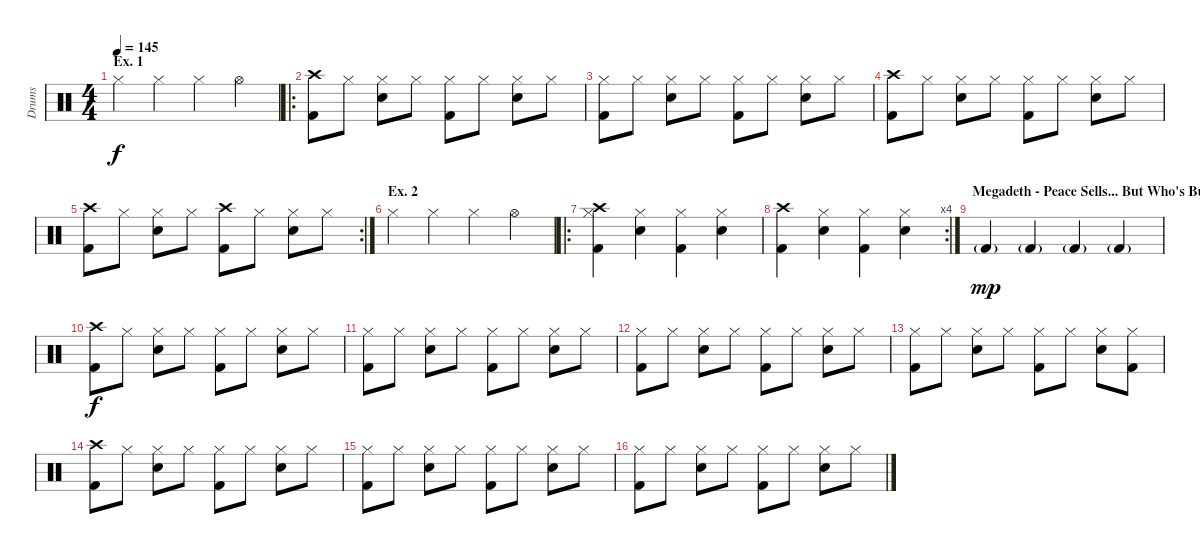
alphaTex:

\track ("Drums" "Drums") {instrument percussion}
\staff {score}
\articulation defaults
\ts (4 4)
\section ("" "Ex. 1")
\tempo 145
\clef neutral
\ks c "Hi-Hat (closed)".4{dy f} "Hi-Hat (closed)".4 "Hi-Hat (closed)".4 "Hi-Hat (open)".4
|
\ro
("Crash high (hit)" "Kick (hit) 2").8 "Hi-Hat (closed)".8 ("Hi-Hat (closed)" "Snare (hit) 2").8 "Hi-Hat (closed)".8 ("Hi-Hat (closed)" "Kick (hit) 2").8 "Hi-Hat (closed)".8 ("Hi-Hat (closed)" "Snare (hit) 2").8 "Hi-Hat (closed)".8 |
("Hi-Hat (closed)" "Kick (hit) 2").8 "Hi-Hat (closed)".8 ("Hi-Hat (closed)" "Snare (hit) 2").8 "Hi-Hat (closed)".8 ("Hi-Hat (closed)" "Kick (hit) 2").8 "Hi-Hat (closed)".8 ("Hi-Hat (closed)" "Snare (hit) 2").8 "Hi-Hat (closed)".8 |
("Crash high (hit)" "Kick (hit) 2").8 "Hi-Hat (closed)".8 ("Hi-Hat (closed)" "Snare (hit) 2").8 "Hi-Hat (closed)".8 ("Hi-Hat (closed)" "Kick (hit) 2").8 "Hi-Hat (closed)".8 ("Hi-Hat (closed)" "Snare (hit) 2").8 "Hi-Hat (closed)".8 |
\rc 2
("Crash high (hit)" "Kick (hit) 2").8 "Hi-Hat (closed)".8 ("Hi-Hat (closed)" "Snare (hit) 2").8 "Hi-Hat (closed)".8 ("Crash high (hit)" "Kick (hit) 2").8 "Hi-Hat (closed)".8 ("Hi-Hat (closed)" "Snare (hit) 2").8 "Hi-Hat (closed)".8 |
\section ("" "Ex. 2")
"Hi-Hat (closed)".4 "Hi-Hat (closed)".4 "Hi-Hat (closed)".4 "Hi-Hat (open)".4 |
\ro
("Crash high (hit)" "Hi-Hat (closed)" "Kick (hit) 2").4 ("Hi-Hat (closed)" "Snare (hit) 2").4 ("Hi-Hat (closed)" "Kick (hit) 2").4 ("Hi-Hat (closed)" "Snare (hit) 2").4 |
\rc 4
("Crash high (hit)" "Kick (hit) 2").4 ("Hi-Hat (closed)" "Snare (hit) 2").4 ("Hi-Hat (closed)" "Kick (hit) 2").4 ("Hi-Hat (closed)" "Snare (hit) 2").4 |
\section ("" "Megadeth - Peace Sells... But Who's Buying?")
"Kick (hit) 2"{g}.4{dy mp} "Kick (hit) 2"{g}.4 "Kick (hit) 2"{g}.4 "Kick (hit) 2"{g}.4 |
("Crash high (hit)" "Kick (hit) 2").8{dy f} "Hi-Hat (closed)".8 ("Hi-Hat (closed)" "Snare (hit) 2").8 "Hi-Hat (closed)".8 ("Hi-Hat (closed)" "Kick (hit) 2").8 "Hi-Hat (closed)".8 ("Hi-Hat (closed)" "Snare (hit) 2").8 "Hi-Hat (closed)".8 |
("Hi-Hat (closed)" "Kick (hit) 2").8 "Hi-Hat (closed)".8 ("Hi-Hat (closed)" "Snare (hit) 2").8 "Hi-Hat (closed)".8 ("Hi-Hat (closed)" "Kick (hit) 2").8 "Hi-Hat (closed)".8 ("Hi-Hat (closed)" "Snare (hit) 2").8 "Hi-Hat (closed)".8 |
("Hi-Hat (closed)" "Kick (hit) 2").8 "Hi-Hat (closed)".8 ("Hi-Hat (closed)" "Snare (hit) 2").8 "Hi-Hat (closed)".8 ("Hi-Hat (closed)" "Kick (hit) 2").8 "Hi-Hat (closed)".8 ("Hi-Hat (closed)" "Snare (hit) 2").8 "Hi-Hat (closed)".8 |
("Hi-Hat (closed)" "Kick (hit) 2").8 "Hi-Hat (closed)".8 ("Hi-Hat (closed)" "Snare (hit) 2").8 "Hi-Hat (closed)".8 ("Hi-Hat (closed)" "Kick (hit) 2").8 "Hi-Hat (closed)".8 ("Hi-Hat (closed)" "Snare (hit) 2").8 ("Hi-Hat (closed)" "Kick (hit) 2").8 |
("Crash high (hit)" "Kick (hit) 2").8 "Hi-Hat (closed)".8 ("Hi-Hat (closed)" "Snare (hit) 2").8 "Hi-Hat (closed)".8 ("Hi-Hat (closed)" "Kick (hit) 2").8 "Hi-Hat (closed)".8 ("Hi-Hat (closed)" "Snare (hit) 2").8 "Hi-Hat (closed)".8 |
("Hi-Hat (closed)" "Kick (hit) 2").8 "Hi-Hat (closed)".8 ("Hi-Hat (closed)" "Snare (hit) 2").8 "Hi-Hat (closed)".8 ("Hi-Hat (closed)" "Kick (hit) 2").8 "Hi-Hat (closed)".8 ("Hi-Hat (closed)" "Snare (hit) 2").8 "Hi-Hat (closed)".8 |
("Hi-Hat (closed)" "Kick (hit) 2").8 "Hi-Hat (closed)".8 ("Hi-Hat (closed)" "Snare (hit) 2").8 "Hi-Hat (closed)".8 ("Hi-Hat (closed)" "Kick (hit) 2").8 "Hi-Hat (closed)".8 ("Hi-Hat (closed)" "Snare (hit) 2").8 "Hi-Hat (closed)".8
